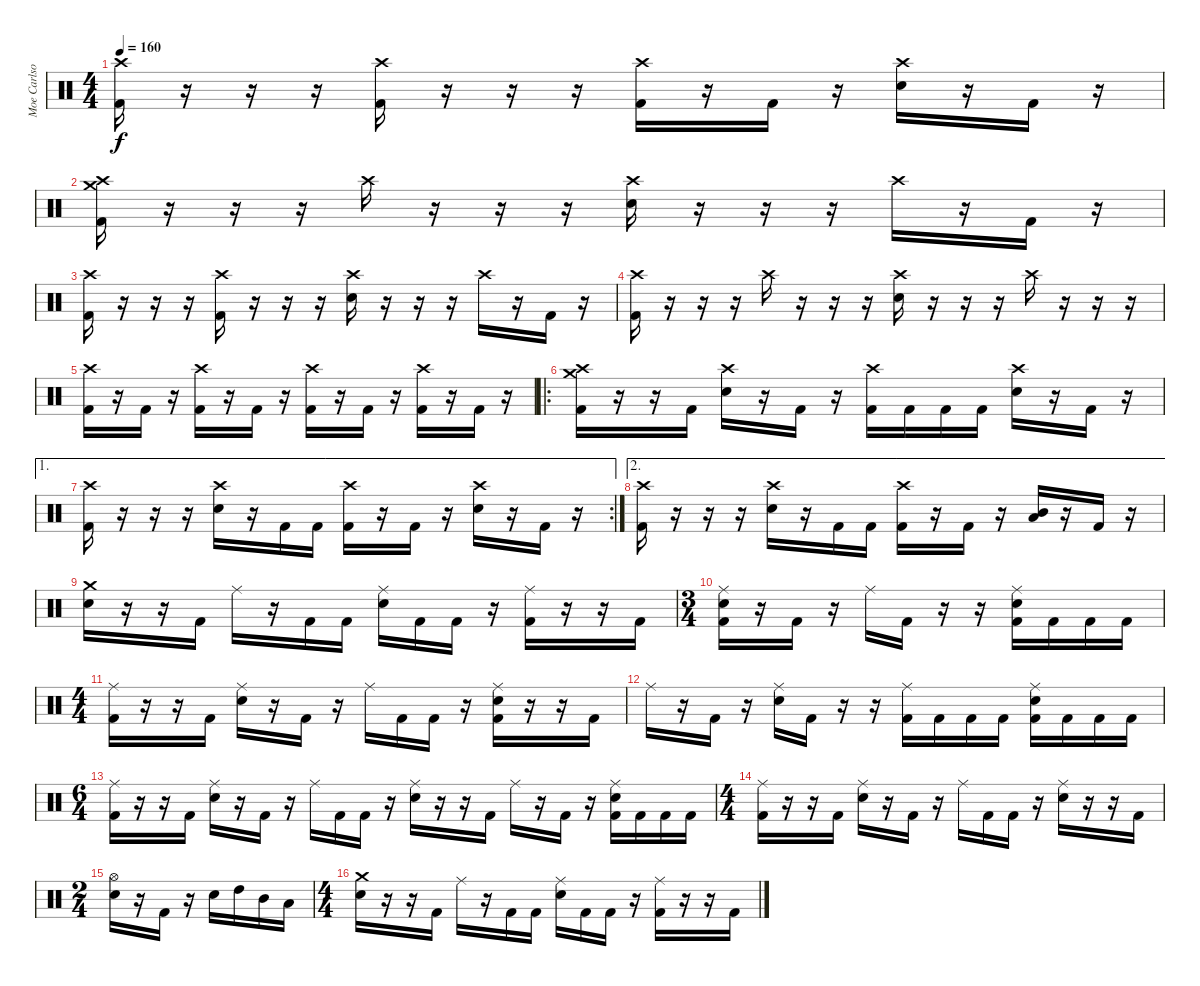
\track ("Moe Carlson" "Moe Carlso") {instrument percussion}
\staff {score}
\articulation defaults
\ts (4 4)
\tempo 160
\clef neutral
\ks c
("Crash high (hit)" "Kick (hit) 2").16{dy f} r.16 r.16 r.16 ("Crash high (hit)" "Kick (hit) 2").16 r.16 r.16 r.16 ("Crash high (hit)" "Kick (hit) 2").16 r.16 "Kick (hit) 2".16 r.16 ("Crash high (hit)" "Electric Snare (hit)").16 r.16 "Kick (hit) 2".16 r.16 |
("Crash high (hit)" "Crash medium (hit)" "Kick (hit) 2").16 r.16 r.16 r.16 "Crash high (hit)".16 r.16 r.16 r.16 ("Crash high (hit)" "Electric Snare (hit)").16 r.16 r.16 r.16 "Crash high (hit)".16 r.16 "Kick (hit) 2".16 r.16 |
("Crash high (hit)" "Kick (hit) 2").16 r.16 r.16 r.16 ("Crash high (hit)" "Kick (hit) 2").16 r.16 r.16 r.16 ("Crash high (hit)" "Electric Snare (hit)").16 r.16 r.16 r.16 "Crash high (hit)".16 r.16 "Kick (hit) 2".16 r.16 |
("Crash high (hit)" "Kick (hit) 2").16 r.16 r.16 r.16 "Crash high (hit)".16 r.16 r.16 r.16 ("Crash high (hit)" "Electric Snare (hit)").16 r.16 r.16 r.16 "Crash high (hit)".16 r.16 r.16 r.16 |
("Crash high (hit)" "Kick (hit) 2").16 r.16 "Kick (hit) 2".16 r.16 ("Crash high (hit)" "Kick (hit) 2").16 r.16 "Kick (hit) 2".16 r.16 ("Crash high (hit)" "Kick (hit) 2").16 r.16 "Kick (hit) 2".16 r.16 ("Crash high (hit)" "Kick (hit) 2").16 r.16 "Kick (hit) 2".16 r.16 |
\ro
("Crash high (hit)" "Crash medium (hit)" "Kick (hit) 2").16 r.16 r.16 "Kick (hit) 2".16 ("Crash high (hit)" "Electric Snare (hit)").16 r.16 "Kick (hit) 2".16 r.16 ("Crash high (hit)" "Kick (hit) 2").16 "Kick (hit) 2".16 "Kick (hit) 2".16 "Kick (hit) 2".16 ("Crash high (hit)" "Electric Snare (hit)").16 r.16 "Kick (hit) 2".16 r.16 |
\ae 1
\rc 2
("Crash high (hit)" "Kick (hit) 2").16 r.16 r.16 r.16 ("Crash high (hit)" "Electric Snare (hit)").16 r.16 "Kick (hit) 2".16 "Kick (hit) 2".16 ("Crash high (hit)" "Kick (hit) 2").16 r.16 "Kick (hit) 2".16 r.16 ("Crash high (hit)" "Electric Snare (hit)").16 r.16 "Kick (hit) 2".16 r.16 |
\ae 2
("Crash high (hit)" "Kick (hit) 2").16 r.16 r.16 r.16 ("Crash high (hit)" "Electric Snare (hit)").16 r.16 "Kick (hit) 2".16 "Kick (hit) 2".16 ("Crash high (hit)" "Kick (hit) 2").16 r.16 "Kick (hit) 2".16 r.16 ("Mid Tom (hit)" "Low Tom (hit)").16 r.16 "Kick (hit) 2".16 r.16 |
("Crash medium (hit)" "Electric Snare (hit)").16 r.16 r.16 "Kick (hit) 2".16 "Ride (middle)".16 r.16 "Kick (hit) 2".16 "Kick (hit) 2".16 ("Ride (middle)" "Electric Snare (hit)").16 "Kick (hit) 2".16 "Kick (hit) 2".16 r.16 ("Ride (middle)" "Kick (hit) 2").16 r.16 r.16 "Kick (hit) 2".16 |
\ts (3 4)
("Ride (middle)" "Electric Snare (hit)" "Kick (hit) 2").16 r.16 "Kick (hit) 2".16 r.16 "Ride (middle)".16 "Kick (hit) 2".16 r.16 r.16 ("Ride (middle)" "Electric Snare (hit)" "Kick (hit) 2").16 "Kick (hit) 2".16 "Kick (hit) 2".16 "Kick (hit) 2".16 |
\ts (4 4)
("Ride (middle)" "Kick (hit) 2").16 r.16 r.16 "Kick (hit) 2".16 ("Ride (middle)" "Electric Snare (hit)").16 r.16 "Kick (hit) 2".16 r.16 "Ride (middle)".16 "Kick (hit) 2".16 "Kick (hit) 2".16 r.16 ("Ride (middle)" "Electric Snare (hit)" "Kick (hit) 2").16 r.16 r.16 "Kick (hit) 2".16 |
"Ride (middle)".16 r.16 "Kick (hit) 2".16 r.16 ("Ride (middle)" "Electric Snare (hit)").16 "Kick (hit) 2".16 r.16 r.16 ("Ride (middle)" "Kick (hit) 2").16 "Kick (hit) 2".16 "Kick (hit) 2".16 "Kick (hit) 2".16 ("Ride (middle)" "Electric Snare (hit)" "Kick (hit) 2").16 "Kick (hit) 2".16 "Kick (hit) 2".16 "Kick (hit) 2".16 |
\ts (6 4)
("Ride (middle)" "Kick (hit) 2").16 r.16 r.16 "Kick (hit) 2".16 ("Ride (middle)" "Electric Snare (hit)").16 r.16 "Kick (hit) 2".16 r.16 "Ride (middle)".16 "Kick (hit) 2".16 "Kick (hit) 2".16 r.16 ("Ride (middle)" "Electric Snare (hit)").16 r.16 r.16 "Kick (hit) 2".16 "Ride (middle)".16 r.16 "Kick (hit) 2".16 r.16 ("Ride (middle)" "Electric Snare (hit)" "Kick (hit) 2").16 "Kick (hit) 2".16 "Kick (hit) 2".16 "Kick (hit) 2".16 |
\ts (4 4)
("Ride (middle)" "Kick (hit) 2").16 r.16 r.16 "Kick (hit) 2".16 ("Ride (middle)" "Electric Snare (hit)").16 r.16 "Kick (hit) 2".16 r.16 "Ride (middle)".16 "Kick (hit) 2".16 "Kick (hit) 2".16 r.16 ("Ride (middle)" "Electric Snare (hit)").16 r.16 r.16 "Kick (hit) 2".16 |
\ts (2 4)
("Hi-Hat (open)" "Electric Snare (hit)").16 r.16 "Kick (hit) 2".16 r.16 "Electric Snare (hit)".16 "High Tom (hit)".16 "Mid Tom (hit)".16 "Low Tom (hit)".16 |
\ts (4 4)
("Crash medium (hit)" "Electric Snare (hit)").16 r.16 r.16 "Kick (hit) 2".16 "Ride (middle)".16 r.16 "Kick (hit) 2".16 "Kick (hit) 2".16 ("Ride (middle)" "Electric Snare (hit)").16 "Kick (hit) 2".16 "Kick (hit) 2".16 r.16 ("Ride (middle)" "Kick (hit) 2").16 r.16 r.16 "Kick (hit) 2".16
